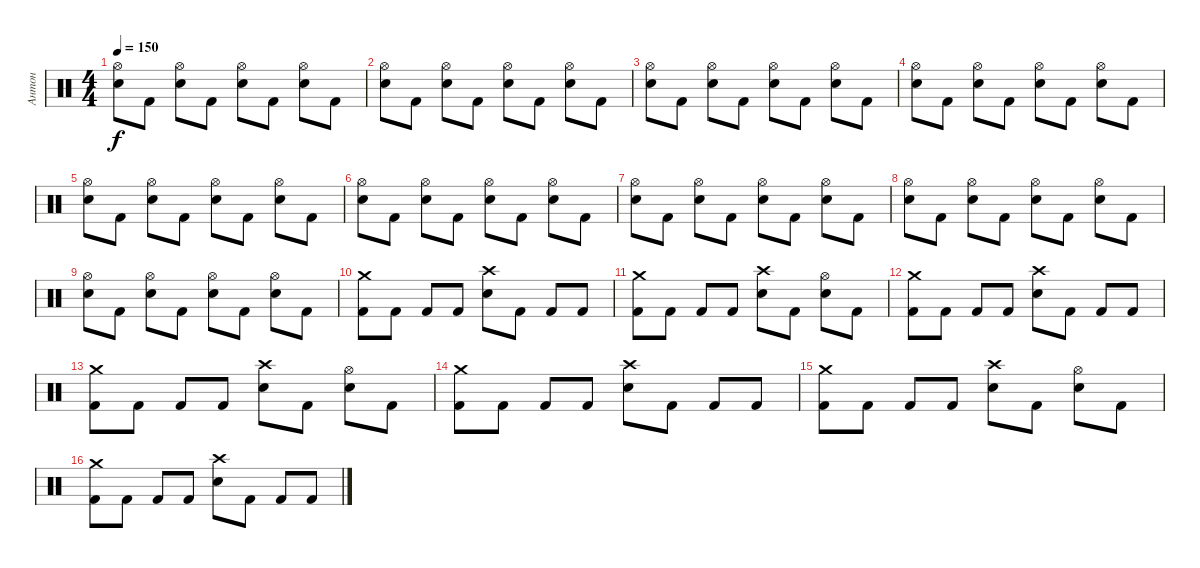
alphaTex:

\track ("Антон" "Антон") {instrument percussion}
\staff {score}
\articulation defaults
\ts (4 4)
\tempo 150
\clef neutral
\ks c
("Hi-Hat (open)" "Electric Snare (hit)").8{dy f} "Kick (hit) 2".8 ("Hi-Hat (open)" "Electric Snare (hit)").8 "Kick (hit) 2".8 ("Hi-Hat (open)" "Electric Snare (hit)").8 "Kick (hit) 2".8 ("Hi-Hat (open)" "Electric Snare (hit)").8 "Kick (hit) 2".8 |
("Hi-Hat (open)" "Electric Snare (hit)").8 "Kick (hit) 2".8 ("Hi-Hat (open)" "Electric Snare (hit)").8 "Kick (hit) 2".8 ("Hi-Hat (open)" "Electric Snare (hit)").8 "Kick (hit) 2".8 ("Hi-Hat (open)" "Electric Snare (hit)").8 "Kick (hit) 2".8 |
("Hi-Hat (open)" "Electric Snare (hit)").8 "Kick (hit) 2".8 ("Hi-Hat (open)" "Electric Snare (hit)").8 "Kick (hit) 2".8 ("Hi-Hat (open)" "Electric Snare (hit)").8 "Kick (hit) 2".8 ("Hi-Hat (open)" "Electric Snare (hit)").8 "Kick (hit) 2".8 |
("Hi-Hat (open)" "Electric Snare (hit)").8 "Kick (hit) 2".8 ("Hi-Hat (open)" "Electric Snare (hit)").8 "Kick (hit) 2".8 ("Hi-Hat (open)" "Electric Snare (hit)").8 "Kick (hit) 2".8 ("Hi-Hat (open)" "Electric Snare (hit)").8 "Kick (hit) 2".8 |
("Hi-Hat (open)" "Electric Snare (hit)").8 "Kick (hit) 2".8 ("Hi-Hat (open)" "Electric Snare (hit)").8 "Kick (hit) 2".8 ("Hi-Hat (open)" "Electric Snare (hit)").8 "Kick (hit) 2".8 ("Hi-Hat (open)" "Electric Snare (hit)").8 "Kick (hit) 2".8 |
("Hi-Hat (open)" "Electric Snare (hit)").8 "Kick (hit) 2".8 ("Hi-Hat (open)" "Electric Snare (hit)").8 "Kick (hit) 2".8 ("Hi-Hat (open)" "Electric Snare (hit)").8 "Kick (hit) 2".8 ("Hi-Hat (open)" "Electric Snare (hit)").8 "Kick (hit) 2".8 |
("Hi-Hat (open)" "Electric Snare (hit)").8 "Kick (hit) 2".8 ("Hi-Hat (open)" "Electric Snare (hit)").8 "Kick (hit) 2".8 ("Hi-Hat (open)" "Electric Snare (hit)").8 "Kick (hit) 2".8 ("Hi-Hat (open)" "Electric Snare (hit)").8 "Kick (hit) 2".8 |
("Hi-Hat (open)" "Electric Snare (hit)").8 "Kick (hit) 2".8 ("Hi-Hat (open)" "Electric Snare (hit)").8 "Kick (hit) 2".8 ("Hi-Hat (open)" "Electric Snare (hit)").8 "Kick (hit) 2".8 ("Hi-Hat (open)" "Electric Snare (hit)").8 "Kick (hit) 2".8 |
("Hi-Hat (open)" "Electric Snare (hit)").8 "Kick (hit) 2".8 ("Hi-Hat (open)" "Electric Snare (hit)").8 "Kick (hit) 2".8 ("Hi-Hat (open)" "Electric Snare (hit)").8 "Kick (hit) 2".8 ("Hi-Hat (open)" "Electric Snare (hit)").8 "Kick (hit) 2".8 |
("Crash medium (hit)" "Kick (hit) 2").8 "Kick (hit) 2".8 "Kick (hit) 2".8 "Kick (hit) 2".8 ("Crash high (hit)" "Electric Snare (hit)").8 "Kick (hit) 2".8 "Kick (hit) 2".8 "Kick (hit) 2".8 |
("Crash medium (hit)" "Kick (hit) 2").8 "Kick (hit) 2".8 "Kick (hit) 2".8 "Kick (hit) 2".8 ("Crash high (hit)" "Electric Snare (hit)").8 "Kick (hit) 2".8 ("Hi-Hat (open)" "Electric Snare (hit)").8 "Kick (hit) 2".8 |
("Crash medium (hit)" "Kick (hit) 2").8 "Kick (hit) 2".8 "Kick (hit) 2".8 "Kick (hit) 2".8 ("Crash high (hit)" "Electric Snare (hit)").8 "Kick (hit) 2".8 "Kick (hit) 2".8 "Kick (hit) 2".8 |
("Crash medium (hit)" "Kick (hit) 2").8 "Kick (hit) 2".8 "Kick (hit) 2".8 "Kick (hit) 2".8 ("Crash high (hit)" "Electric Snare (hit)").8 "Kick (hit) 2".8 ("Hi-Hat (open)" "Electric Snare (hit)").8 "Kick (hit) 2".8 |
("Crash medium (hit)" "Kick (hit) 2").8 "Kick (hit) 2".8 "Kick (hit) 2".8 "Kick (hit) 2".8 ("Crash high (hit)" "Electric Snare (hit)").8 "Kick (hit) 2".8 "Kick (hit) 2".8 "Kick (hit) 2".8 |
("Crash medium (hit)" "Kick (hit) 2").8 "Kick (hit) 2".8 "Kick (hit) 2".8 "Kick (hit) 2".8 ("Crash high (hit)" "Electric Snare (hit)").8 "Kick (hit) 2".8 ("Hi-Hat (open)" "Electric Snare (hit)").8 "Kick (hit) 2".8 |
("Crash medium (hit)" "Kick (hit) 2").8 "Kick (hit) 2".8 "Kick (hit) 2".8 "Kick (hit) 2".8 ("Crash high (hit)" "Electric Snare (hit)").8 "Kick (hit) 2".8 "Kick (hit) 2".8 "Kick (hit) 2".8
